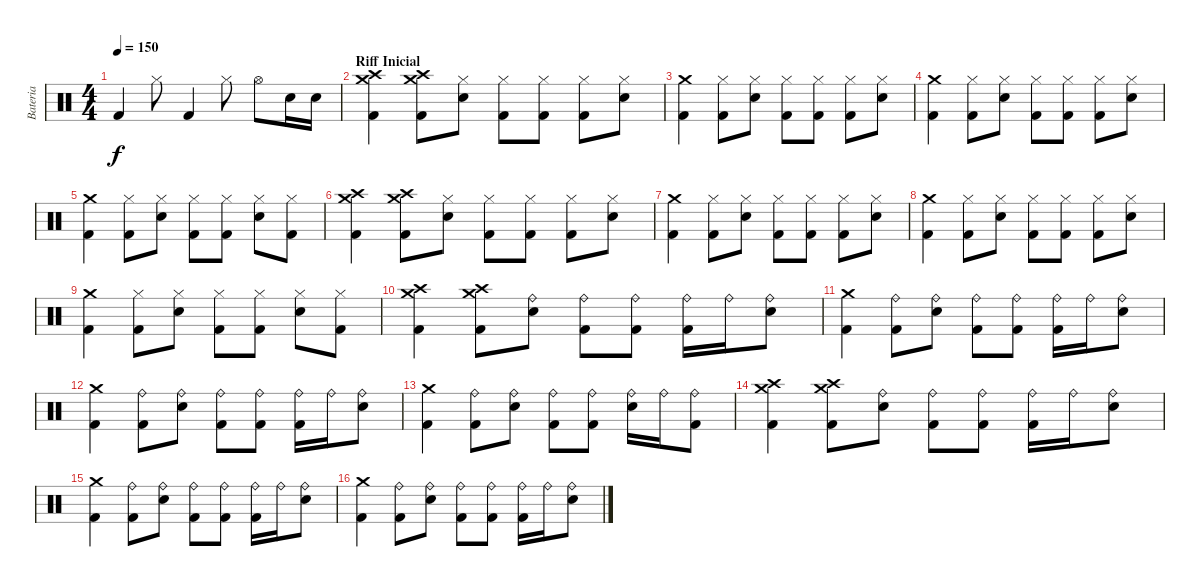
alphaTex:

\track ("Bateria" "Bateria") {instrument percussion}
\staff {score}
\articulation defaults
\ts (4 4)
\tempo 150
\clef neutral
\ks c "Kick (hit) 2".4{dy f} "Hi-Hat (closed)".8 "Kick (hit) 2".4 "Hi-Hat (closed)".8 "Hi-Hat (open)".8 "Electric Snare (hit)".16 "Electric Snare (hit)".16
|
\section ("" "Riff Inicial")
("Kick (hit) 2" "Crash medium (hit)" "Crash high (hit)").4 ("Kick (hit) 2" "Crash medium (hit)" "Crash high (hit)").8 ("Electric Snare (hit)" "Hi-Hat (closed)").8 ("Kick (hit) 2" "Hi-Hat (closed)").8 ("Kick (hit) 2" "Hi-Hat (closed)").8 ("Kick (hit) 2" "Hi-Hat (closed)").8 ("Electric Snare (hit)" "Hi-Hat (closed)").8 |
("Kick (hit) 2" "Crash medium (hit)").4 ("Kick (hit) 2" "Hi-Hat (closed)").8 ("Electric Snare (hit)" "Hi-Hat (closed)").8 ("Kick (hit) 2" "Hi-Hat (closed)").8 ("Kick (hit) 2" "Hi-Hat (closed)").8 ("Kick (hit) 2" "Hi-Hat (closed)").8 ("Electric Snare (hit)" "Hi-Hat (closed)").8 |
("Kick (hit) 2" "Crash medium (hit)").4 ("Kick (hit) 2" "Hi-Hat (closed)").8 ("Electric Snare (hit)" "Hi-Hat (closed)").8 ("Kick (hit) 2" "Hi-Hat (closed)").8 ("Kick (hit) 2" "Hi-Hat (closed)").8 ("Kick (hit) 2" "Hi-Hat (closed)").8 ("Electric Snare (hit)" "Hi-Hat (closed)").8 |
("Kick (hit) 2" "Crash medium (hit)").4 ("Kick (hit) 2" "Hi-Hat (closed)").8 ("Electric Snare (hit)" "Hi-Hat (closed)").8 ("Kick (hit) 2" "Hi-Hat (closed)").8 ("Kick (hit) 2" "Hi-Hat (closed)").8 ("Electric Snare (hit)" "Hi-Hat (closed)").8 ("Kick (hit) 2" "Hi-Hat (closed)").8 |
("Kick (hit) 2" "Crash medium (hit)" "Crash high (hit)").4 ("Kick (hit) 2" "Crash medium (hit)" "Crash high (hit)").8 ("Electric Snare (hit)" "Hi-Hat (closed)").8 ("Kick (hit) 2" "Hi-Hat (closed)").8 ("Kick (hit) 2" "Hi-Hat (closed)").8 ("Kick (hit) 2" "Hi-Hat (closed)").8 ("Electric Snare (hit)" "Hi-Hat (closed)").8 |
("Kick (hit) 2" "Crash medium (hit)").4 ("Kick (hit) 2" "Hi-Hat (closed)").8 ("Electric Snare (hit)" "Hi-Hat (closed)").8 ("Kick (hit) 2" "Hi-Hat (closed)").8 ("Kick (hit) 2" "Hi-Hat (closed)").8 ("Kick (hit) 2" "Hi-Hat (closed)").8 ("Electric Snare (hit)" "Hi-Hat (closed)").8 |
("Kick (hit) 2" "Crash medium (hit)").4 ("Kick (hit) 2" "Hi-Hat (closed)").8 ("Electric Snare (hit)" "Hi-Hat (closed)").8 ("Kick (hit) 2" "Hi-Hat (closed)").8 ("Kick (hit) 2" "Hi-Hat (closed)").8 ("Kick (hit) 2" "Hi-Hat (closed)").8 ("Electric Snare (hit)" "Hi-Hat (closed)").8 |
("Kick (hit) 2" "Crash medium (hit)").4 ("Kick (hit) 2" "Hi-Hat (closed)").8 ("Electric Snare (hit)" "Hi-Hat (closed)").8 ("Kick (hit) 2" "Hi-Hat (closed)").8 ("Kick (hit) 2" "Hi-Hat (closed)").8 ("Electric Snare (hit)" "Hi-Hat (closed)").8 ("Kick (hit) 2" "Hi-Hat (closed)").8 |
("Kick (hit) 2" "Crash medium (hit)" "Crash high (hit)").4 ("Kick (hit) 2" "Crash medium (hit)" "Crash high (hit)").8 ("Electric Snare (hit)" "Ride (bell)").8 ("Kick (hit) 2" "Ride (bell)").8 ("Kick (hit) 2" "Ride (bell)").8 ("Kick (hit) 2" "Ride (bell)").16 "Ride (bell)".16 ("Electric Snare (hit)" "Ride (bell)").8 |
("Kick (hit) 2" "Crash medium (hit)").4 ("Kick (hit) 2" "Ride (bell)").8 ("Electric Snare (hit)" "Ride (bell)").8 ("Kick (hit) 2" "Ride (bell)").8 ("Kick (hit) 2" "Ride (bell)").8 ("Kick (hit) 2" "Ride (bell)").16 "Ride (bell)".16 ("Electric Snare (hit)" "Ride (bell)").8 |
("Kick (hit) 2" "Crash medium (hit)").4 ("Kick (hit) 2" "Ride (bell)").8 ("Electric Snare (hit)" "Ride (bell)").8 ("Kick (hit) 2" "Ride (bell)").8 ("Kick (hit) 2" "Ride (bell)").8 ("Kick (hit) 2" "Ride (bell)").16 "Ride (bell)".16 ("Electric Snare (hit)" "Ride (bell)").8 |
("Kick (hit) 2" "Crash medium (hit)").4 ("Kick (hit) 2" "Ride (bell)").8 ("Electric Snare (hit)" "Ride (bell)").8 ("Kick (hit) 2" "Ride (bell)").8 ("Kick (hit) 2" "Ride (bell)").8 ("Electric Snare (hit)" "Ride (bell)").16 "Ride (bell)".16 ("Kick (hit) 2" "Ride (bell)").8 |
("Kick (hit) 2" "Crash medium (hit)" "Crash high (hit)").4 ("Kick (hit) 2" "Crash medium (hit)" "Crash high (hit)").8 ("Electric Snare (hit)" "Ride (bell)").8 ("Kick (hit) 2" "Ride (bell)").8 ("Kick (hit) 2" "Ride (bell)").8 ("Kick (hit) 2" "Ride (bell)").16 "Ride (bell)".16 ("Electric Snare (hit)" "Ride (bell)").8 |
("Kick (hit) 2" "Crash medium (hit)").4 ("Kick (hit) 2" "Ride (bell)").8 ("Electric Snare (hit)" "Ride (bell)").8 ("Kick (hit) 2" "Ride (bell)").8 ("Kick (hit) 2" "Ride (bell)").8 ("Kick (hit) 2" "Ride (bell)").16 "Ride (bell)".16 ("Electric Snare (hit)" "Ride (bell)").8 |
("Kick (hit) 2" "Crash medium (hit)").4 ("Kick (hit) 2" "Ride (bell)").8 ("Electric Snare (hit)" "Ride (bell)").8 ("Kick (hit) 2" "Ride (bell)").8 ("Kick (hit) 2" "Ride (bell)").8 ("Kick (hit) 2" "Ride (bell)").16 "Ride (bell)".16 ("Electric Snare (hit)" "Ride (bell)").8
